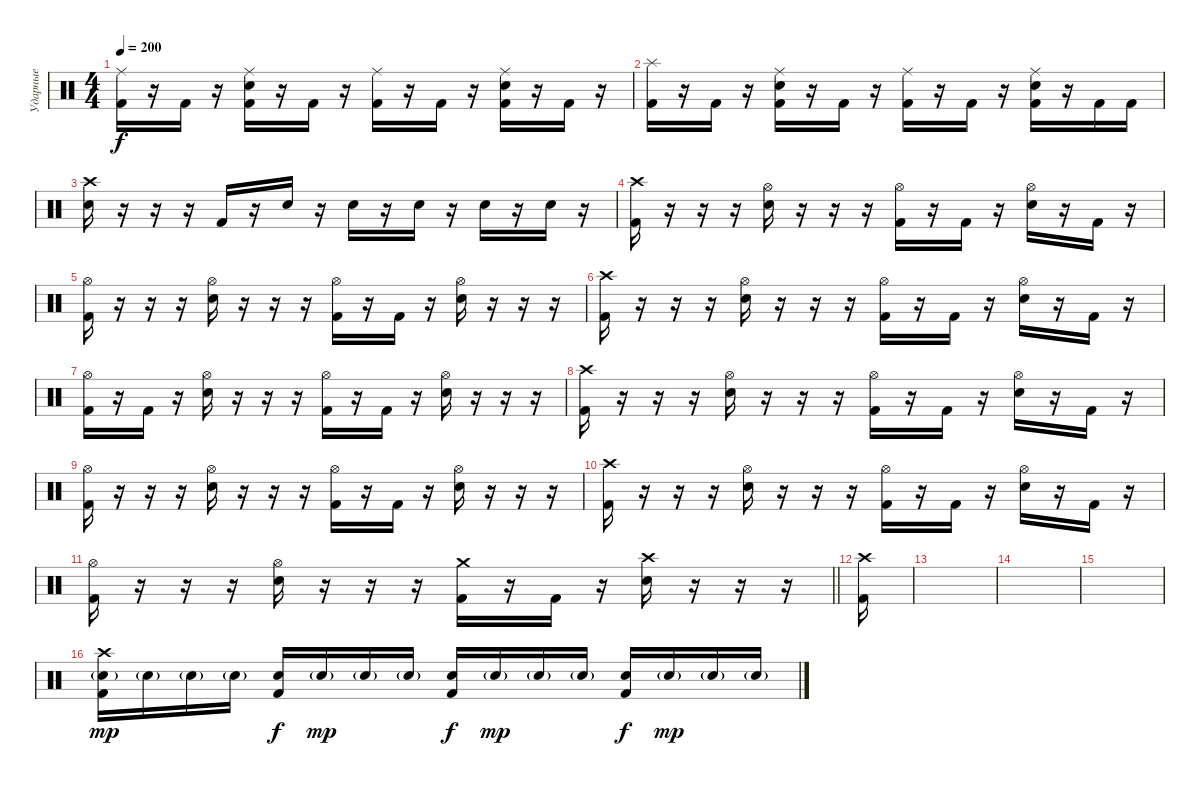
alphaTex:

\track ("Ударные" "Ударные") {instrument percussion}
\staff {score}
\articulation defaults
\ts (4 4)
\tempo 200
\clef neutral
\ks c
("Ride (middle)" "Kick (hit) 2").16{dy f} r.16 "Kick (hit) 2".16 r.16 ("Ride (middle)" "Electric Snare (hit)" "Kick (hit) 2").16 r.16 "Kick (hit) 2".16 r.16 ("Ride (middle)" "Kick (hit) 2").16 r.16 "Kick (hit) 2".16 r.16 ("Ride (middle)" "Electric Snare (hit)" "Kick (hit) 2").16 r.16 "Kick (hit) 2".16 r.16 |
("Splash (hit)" "Kick (hit) 2").16 r.16 "Kick (hit) 2".16 r.16 ("Ride (middle)" "Electric Snare (hit)" "Kick (hit) 2").16 r.16 "Kick (hit) 2".16 r.16 ("Ride (middle)" "Kick (hit) 2").16 r.16 "Kick (hit) 2".16 r.16 ("Ride (middle)" "Electric Snare (hit)" "Kick (hit) 2").16 r.16 "Kick (hit) 2".16 "Kick (hit) 2".16 |
("Crash high (hit)" "Electric Snare (hit)").16 r.16 r.16 r.16 "Kick (hit) 2".16 r.16 "Electric Snare (hit)".16 r.16 "Electric Snare (hit)".16 r.16 "Electric Snare (hit)".16 r.16 "Electric Snare (hit)".16 r.16 "Electric Snare (hit)".16 r.16 |
("Crash high (hit)" "Kick (hit) 2").16 r.16 r.16 r.16 ("Hi-Hat (open)" "Electric Snare (hit)").16 r.16 r.16 r.16 ("Hi-Hat (open)" "Kick (hit) 2").16 r.16 "Kick (hit) 2".16 r.16 ("Hi-Hat (open)" "Electric Snare (hit)").16 r.16 "Kick (hit) 2".16 r.16 |
("Hi-Hat (open)" "Kick (hit) 2").16 r.16 r.16 r.16 ("Hi-Hat (open)" "Electric Snare (hit)").16 r.16 r.16 r.16 ("Hi-Hat (open)" "Kick (hit) 2").16 r.16 "Kick (hit) 2".16 r.16 ("Hi-Hat (open)" "Electric Snare (hit)").16 r.16 r.16 r.16 |
("Crash high (hit)" "Kick (hit) 2").16 r.16 r.16 r.16 ("Hi-Hat (open)" "Electric Snare (hit)").16 r.16 r.16 r.16 ("Hi-Hat (open)" "Kick (hit) 2").16 r.16 "Kick (hit) 2".16 r.16 ("Hi-Hat (open)" "Electric Snare (hit)").16 r.16 "Kick (hit) 2".16 r.16 |
("Hi-Hat (open)" "Kick (hit) 2").16 r.16 "Kick (hit) 2".16 r.16 ("Hi-Hat (open)" "Electric Snare (hit)").16 r.16 r.16 r.16 ("Hi-Hat (open)" "Kick (hit) 2").16 r.16 "Kick (hit) 2".16 r.16 ("Hi-Hat (open)" "Electric Snare (hit)").16 r.16 r.16 r.16 |
("Crash high (hit)" "Kick (hit) 2").16 r.16 r.16 r.16 ("Hi-Hat (open)" "Electric Snare (hit)").16 r.16 r.16 r.16 ("Hi-Hat (open)" "Kick (hit) 2").16 r.16 "Kick (hit) 2".16 r.16 ("Hi-Hat (open)" "Electric Snare (hit)").16 r.16 "Kick (hit) 2".16 r.16 |
("Hi-Hat (open)" "Kick (hit) 2").16 r.16 r.16 r.16 ("Hi-Hat (open)" "Electric Snare (hit)").16 r.16 r.16 r.16 ("Hi-Hat (open)" "Kick (hit) 2").16 r.16 "Kick (hit) 2".16 r.16 ("Hi-Hat (open)" "Electric Snare (hit)").16 r.16 r.16 r.16 |
("Crash high (hit)" "Kick (hit) 2").16 r.16 r.16 r.16 ("Hi-Hat (open)" "Electric Snare (hit)").16 r.16 r.16 r.16 ("Hi-Hat (open)" "Kick (hit) 2").16 r.16 "Kick (hit) 2".16 r.16 ("Hi-Hat (open)" "Electric Snare (hit)").16 r.16 "Kick (hit) 2".16 r.16 |
\barLineRight lightlight
("Hi-Hat (open)" "Kick (hit) 2").16 r.16 r.16 r.16 ("Hi-Hat (open)" "Electric Snare (hit)").16 r.16 r.16 r.16 ("Crash medium (hit)" "Kick (hit) 2").16 r.16 "Kick (hit) 2".16 r.16 ("Crash high (hit)" "Electric Snare (hit)").16 r.16 r.16 r.16 |
("Crash high (hit)" "Kick (hit) 2").16 |
|
|
|
("Crash high (hit)" "Electric Snare (hit)"{g} "Kick (hit) 2").16{dy mp} "Electric Snare (hit)"{g}.16 "Electric Snare (hit)"{g}.16 "Electric Snare (hit)"{g}.16 ("Electric Snare (hit)" "Kick (hit) 2").16{dy f} "Electric Snare (hit)"{g}.16{dy mp} "Electric Snare (hit)"{g}.16 "Electric Snare (hit)"{g}.16 ("Electric Snare (hit)" "Kick (hit) 2").16{dy f} "Electric Snare (hit)"{g}.16{dy mp} "Electric Snare (hit)"{g}.16 "Electric Snare (hit)"{g}.16 ("Electric Snare (hit)" "Kick (hit) 2").16{dy f} "Electric Snare (hit)"{g}.16{dy mp} "Electric Snare (hit)"{g}.16 "Electric Snare (hit)"{g}.16
